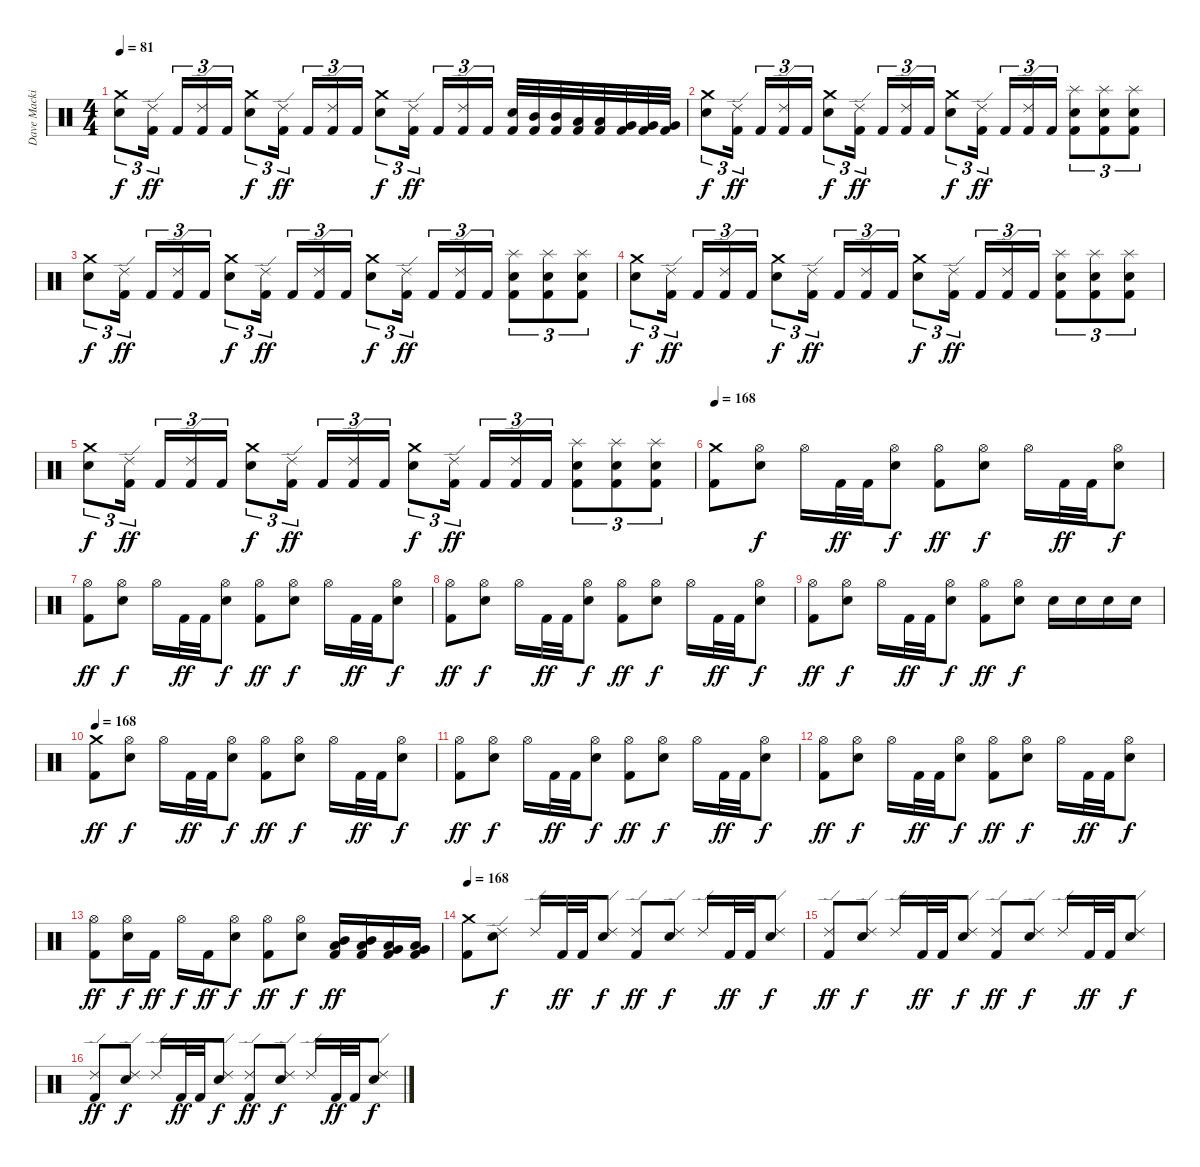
\track ("Dave Mackintosh" "Dave Macki") {instrument percussion}
\staff {score}
\articulation defaults
\ts (4 4)
\tempo 81
\clef neutral
\ks c
("Crash medium (hit)" "Electric Snare (hit)").8{tu (3 2) dy f} ("Ride (edge) 2" "Kick (hit) 2").16{tu (3 2) dy ff} "Kick (hit) 2".16{tu (3 2)} ("Ride (edge) 2" "Kick (hit) 2").16{tu (3 2)} "Kick (hit) 2".16{tu (3 2)} ("Crash medium (hit)" "Electric Snare (hit)").8{tu (3 2) dy f} ("Ride (edge) 2" "Kick (hit) 2").16{tu (3 2) dy ff} "Kick (hit) 2".16{tu (3 2)} ("Ride (edge) 2" "Kick (hit) 2").16{tu (3 2)} "Kick (hit) 2".16{tu (3 2)} ("Crash medium (hit)" "Electric Snare (hit)").8{tu (3 2) dy f} ("Ride (edge) 2" "Kick (hit) 2").16{tu (3 2) dy ff} "Kick (hit) 2".16{tu (3 2)} ("Ride (edge) 2" "Kick (hit) 2").16{tu (3 2)} "Kick (hit) 2".16{tu (3 2)} ("Electric Snare (hit)" "Kick (hit) 2").32 ("Mid Tom (hit)" "Kick (hit) 2").32 ("Mid Tom (hit)" "Kick (hit) 2").32 ("Low Tom (hit)" "Kick (hit) 2").32 ("Low Tom (hit)" "Kick (hit) 2").32 ("Very Low Tom (hit)" "Kick (hit) 2").32 ("Very Low Tom (hit)" "Kick (hit) 2").32 ("Very Low Tom (hit)" "Kick (hit) 2").32 |
("Crash medium (hit)" "Electric Snare (hit)").8{tu (3 2) dy f} ("Ride (edge) 2" "Kick (hit) 2").16{tu (3 2) dy ff} "Kick (hit) 2".16{tu (3 2)} ("Ride (edge) 2" "Kick (hit) 2").16{tu (3 2)} "Kick (hit) 2".16{tu (3 2)} ("Crash medium (hit)" "Electric Snare (hit)").8{tu (3 2) dy f} ("Ride (edge) 2" "Kick (hit) 2").16{tu (3 2) dy ff} "Kick (hit) 2".16{tu (3 2)} ("Ride (edge) 2" "Kick (hit) 2").16{tu (3 2)} "Kick (hit) 2".16{tu (3 2)} ("Crash medium (hit)" "Electric Snare (hit)").8{tu (3 2) dy f} ("Ride (edge) 2" "Kick (hit) 2").16{tu (3 2) dy ff} "Kick (hit) 2".16{tu (3 2)} ("Ride (edge) 2" "Kick (hit) 2").16{tu (3 2)} "Kick (hit) 2".16{tu (3 2)} ("Splash (hit)" "Electric Snare (hit)" "Kick (hit) 2").8{tu (3 2)} ("Splash (hit)" "Electric Snare (hit)" "Kick (hit) 2").8{tu (3 2)} ("Splash (hit)" "Electric Snare (hit)" "Kick (hit) 2").8{tu (3 2)} |
("Crash medium (hit)" "Electric Snare (hit)").8{tu (3 2) dy f} ("Ride (edge) 2" "Kick (hit) 2").16{tu (3 2) dy ff} "Kick (hit) 2".16{tu (3 2)} ("Ride (edge) 2" "Kick (hit) 2").16{tu (3 2)} "Kick (hit) 2".16{tu (3 2)} ("Crash medium (hit)" "Electric Snare (hit)").8{tu (3 2) dy f} ("Ride (edge) 2" "Kick (hit) 2").16{tu (3 2) dy ff} "Kick (hit) 2".16{tu (3 2)} ("Ride (edge) 2" "Kick (hit) 2").16{tu (3 2)} "Kick (hit) 2".16{tu (3 2)} ("Crash medium (hit)" "Electric Snare (hit)").8{tu (3 2) dy f} ("Ride (edge) 2" "Kick (hit) 2").16{tu (3 2) dy ff} "Kick (hit) 2".16{tu (3 2)} ("Ride (edge) 2" "Kick (hit) 2").16{tu (3 2)} "Kick (hit) 2".16{tu (3 2)} ("Splash (hit)" "Electric Snare (hit)" "Kick (hit) 2").8{tu (3 2)} ("Splash (hit)" "Electric Snare (hit)" "Kick (hit) 2").8{tu (3 2)} ("Splash (hit)" "Electric Snare (hit)" "Kick (hit) 2").8{tu (3 2)} |
("Crash medium (hit)" "Electric Snare (hit)").8{tu (3 2) dy f} ("Ride (edge) 2" "Kick (hit) 2").16{tu (3 2) dy ff} "Kick (hit) 2".16{tu (3 2)} ("Ride (edge) 2" "Kick (hit) 2").16{tu (3 2)} "Kick (hit) 2".16{tu (3 2)} ("Crash medium (hit)" "Electric Snare (hit)").8{tu (3 2) dy f} ("Ride (edge) 2" "Kick (hit) 2").16{tu (3 2) dy ff} "Kick (hit) 2".16{tu (3 2)} ("Ride (edge) 2" "Kick (hit) 2").16{tu (3 2)} "Kick (hit) 2".16{tu (3 2)} ("Crash medium (hit)" "Electric Snare (hit)").8{tu (3 2) dy f} ("Ride (edge) 2" "Kick (hit) 2").16{tu (3 2) dy ff} "Kick (hit) 2".16{tu (3 2)} ("Ride (edge) 2" "Kick (hit) 2").16{tu (3 2)} "Kick (hit) 2".16{tu (3 2)} ("Splash (hit)" "Electric Snare (hit)" "Kick (hit) 2").8{tu (3 2)} ("Splash (hit)" "Electric Snare (hit)" "Kick (hit) 2").8{tu (3 2)} ("Splash (hit)" "Electric Snare (hit)" "Kick (hit) 2").8{tu (3 2)} |
("Crash medium (hit)" "Electric Snare (hit)").8{tu (3 2) dy f} ("Ride (edge) 2" "Kick (hit) 2").16{tu (3 2) dy ff} "Kick (hit) 2".16{tu (3 2)} ("Ride (edge) 2" "Kick (hit) 2").16{tu (3 2)} "Kick (hit) 2".16{tu (3 2)} ("Crash medium (hit)" "Electric Snare (hit)").8{tu (3 2) dy f} ("Ride (edge) 2" "Kick (hit) 2").16{tu (3 2) dy ff} "Kick (hit) 2".16{tu (3 2)} ("Ride (edge) 2" "Kick (hit) 2").16{tu (3 2)} "Kick (hit) 2".16{tu (3 2)} ("Crash medium (hit)" "Electric Snare (hit)").8{tu (3 2) dy f} ("Ride (edge) 2" "Kick (hit) 2").16{tu (3 2) dy ff} "Kick (hit) 2".16{tu (3 2)} ("Ride (edge) 2" "Kick (hit) 2").16{tu (3 2)} "Kick (hit) 2".16{tu (3 2)} ("Splash (hit)" "Electric Snare (hit)" "Kick (hit) 2").8{tu (3 2)} ("Splash (hit)" "Electric Snare (hit)" "Kick (hit) 2").8{tu (3 2)} ("Splash (hit)" "Electric Snare (hit)" "Kick (hit) 2").8{tu (3 2)} |
\section ("" "")
\tempo 168
("Crash medium (hit)" "Kick (hit) 2").8 ("Hi-Hat (open)" "Electric Snare (hit)").8{dy f} "Hi-Hat (open)".16 "Kick (hit) 2".32{dy ff} "Kick (hit) 2".32 ("Hi-Hat (open)" "Electric Snare (hit)").8{dy f} ("Hi-Hat (open)" "Kick (hit) 2").8{dy ff} ("Hi-Hat (open)" "Electric Snare (hit)").8{dy f} "Hi-Hat (open)".16 "Kick (hit) 2".32{dy ff} "Kick (hit) 2".32 ("Hi-Hat (open)" "Electric Snare (hit)").8{dy f} |
("Hi-Hat (open)" "Kick (hit) 2").8{dy ff} ("Hi-Hat (open)" "Electric Snare (hit)").8{dy f} "Hi-Hat (open)".16 "Kick (hit) 2".32{dy ff} "Kick (hit) 2".32 ("Hi-Hat (open)" "Electric Snare (hit)").8{dy f} ("Hi-Hat (open)" "Kick (hit) 2").8{dy ff} ("Hi-Hat (open)" "Electric Snare (hit)").8{dy f} "Hi-Hat (open)".16 "Kick (hit) 2".32{dy ff} "Kick (hit) 2".32 ("Hi-Hat (open)" "Electric Snare (hit)").8{dy f} |
("Hi-Hat (open)" "Kick (hit) 2").8{dy ff} ("Hi-Hat (open)" "Electric Snare (hit)").8{dy f} "Hi-Hat (open)".16 "Kick (hit) 2".32{dy ff} "Kick (hit) 2".32 ("Hi-Hat (open)" "Electric Snare (hit)").8{dy f} ("Hi-Hat (open)" "Kick (hit) 2").8{dy ff} ("Hi-Hat (open)" "Electric Snare (hit)").8{dy f} "Hi-Hat (open)".16 "Kick (hit) 2".32{dy ff} "Kick (hit) 2".32 ("Hi-Hat (open)" "Electric Snare (hit)").8{dy f} |
("Hi-Hat (open)" "Kick (hit) 2").8{dy ff} ("Hi-Hat (open)" "Electric Snare (hit)").8{dy f} "Hi-Hat (open)".16 "Kick (hit) 2".32{dy ff} "Kick (hit) 2".32 ("Hi-Hat (open)" "Electric Snare (hit)").8{dy f} ("Hi-Hat (open)" "Kick (hit) 2").8{dy ff} ("Hi-Hat (open)" "Electric Snare (hit)").8{dy f} "Electric Snare (hit)".16 "Electric Snare (hit)".16 "Electric Snare (hit)".16 "Electric Snare (hit)".16 |
\tempo 168
("Crash medium (hit)" "Kick (hit) 2").8{dy ff} ("Hi-Hat (open)" "Electric Snare (hit)").8{dy f} "Hi-Hat (open)".16 "Kick (hit) 2".32{dy ff} "Kick (hit) 2".32 ("Hi-Hat (open)" "Electric Snare (hit)").8{dy f} ("Hi-Hat (open)" "Kick (hit) 2").8{dy ff} ("Hi-Hat (open)" "Electric Snare (hit)").8{dy f} "Hi-Hat (open)".16 "Kick (hit) 2".32{dy ff} "Kick (hit) 2".32 ("Hi-Hat (open)" "Electric Snare (hit)").8{dy f} |
("Hi-Hat (open)" "Kick (hit) 2").8{dy ff} ("Hi-Hat (open)" "Electric Snare (hit)").8{dy f} "Hi-Hat (open)".16 "Kick (hit) 2".32{dy ff} "Kick (hit) 2".32 ("Hi-Hat (open)" "Electric Snare (hit)").8{dy f} ("Hi-Hat (open)" "Kick (hit) 2").8{dy ff} ("Hi-Hat (open)" "Electric Snare (hit)").8{dy f} "Hi-Hat (open)".16 "Kick (hit) 2".32{dy ff} "Kick (hit) 2".32 ("Hi-Hat (open)" "Electric Snare (hit)").8{dy f} |
("Hi-Hat (open)" "Kick (hit) 2").8{dy ff} ("Hi-Hat (open)" "Electric Snare (hit)").8{dy f} "Hi-Hat (open)".16 "Kick (hit) 2".32{dy ff} "Kick (hit) 2".32 ("Hi-Hat (open)" "Electric Snare (hit)").8{dy f} ("Hi-Hat (open)" "Kick (hit) 2").8{dy ff} ("Hi-Hat (open)" "Electric Snare (hit)").8{dy f} "Hi-Hat (open)".16 "Kick (hit) 2".32{dy ff} "Kick (hit) 2".32 ("Hi-Hat (open)" "Electric Snare (hit)").8{dy f} |
("Hi-Hat (open)" "Kick (hit) 2").8{dy ff} ("Hi-Hat (open)" "Electric Snare (hit)").16{dy f} "Kick (hit) 2".16{dy ff} "Hi-Hat (open)".16{dy f} "Kick (hit) 2".16{dy ff} ("Hi-Hat (open)" "Electric Snare (hit)").8{dy f} ("Hi-Hat (open)" "Kick (hit) 2").8{dy ff} ("Hi-Hat (open)" "Electric Snare (hit)").8{dy f} ("Mid Tom (hit)" "Low Tom (hit)" "Kick (hit) 2").16{dy ff} ("Low Tom (hit)" "Mid Tom (hit)" "Kick (hit) 2").16 ("Very Low Tom (hit)" "Low Tom (hit)" "Kick (hit) 2").16 ("Very Low Tom (hit)" "Low Tom (hit)" "Kick (hit) 2").16 |
\tempo 168
("Crash medium (hit)" "Kick (hit) 2").8 ("Ride (edge) 2" "Electric Snare (hit)").8{dy f} "Ride (edge) 2".16 "Kick (hit) 2".32{dy ff} "Kick (hit) 2".32 ("Ride (edge) 2" "Electric Snare (hit)").8{dy f} ("Ride (edge) 2" "Kick (hit) 2").8{dy ff} ("Ride (edge) 2" "Electric Snare (hit)").8{dy f} "Ride (edge) 2".16 "Kick (hit) 2".32{dy ff} "Kick (hit) 2".32 ("Ride (edge) 2" "Electric Snare (hit)").8{dy f} |
("Ride (edge) 2" "Kick (hit) 2").8{dy ff} ("Ride (edge) 2" "Electric Snare (hit)").8{dy f} "Ride (edge) 2".16 "Kick (hit) 2".32{dy ff} "Kick (hit) 2".32 ("Ride (edge) 2" "Electric Snare (hit)").8{dy f} ("Ride (edge) 2" "Kick (hit) 2").8{dy ff} ("Ride (edge) 2" "Electric Snare (hit)").8{dy f} "Ride (edge) 2".16 "Kick (hit) 2".32{dy ff} "Kick (hit) 2".32 ("Ride (edge) 2" "Electric Snare (hit)").8{dy f} |
("Ride (edge) 2" "Kick (hit) 2").8{dy ff} ("Ride (edge) 2" "Electric Snare (hit)").8{dy f} "Ride (edge) 2".16 "Kick (hit) 2".32{dy ff} "Kick (hit) 2".32 ("Ride (edge) 2" "Electric Snare (hit)").8{dy f} ("Ride (edge) 2" "Kick (hit) 2").8{dy ff} ("Ride (edge) 2" "Electric Snare (hit)").8{dy f} "Ride (edge) 2".16 "Kick (hit) 2".32{dy ff} "Kick (hit) 2".32 ("Ride (edge) 2" "Electric Snare (hit)").8{dy f}
